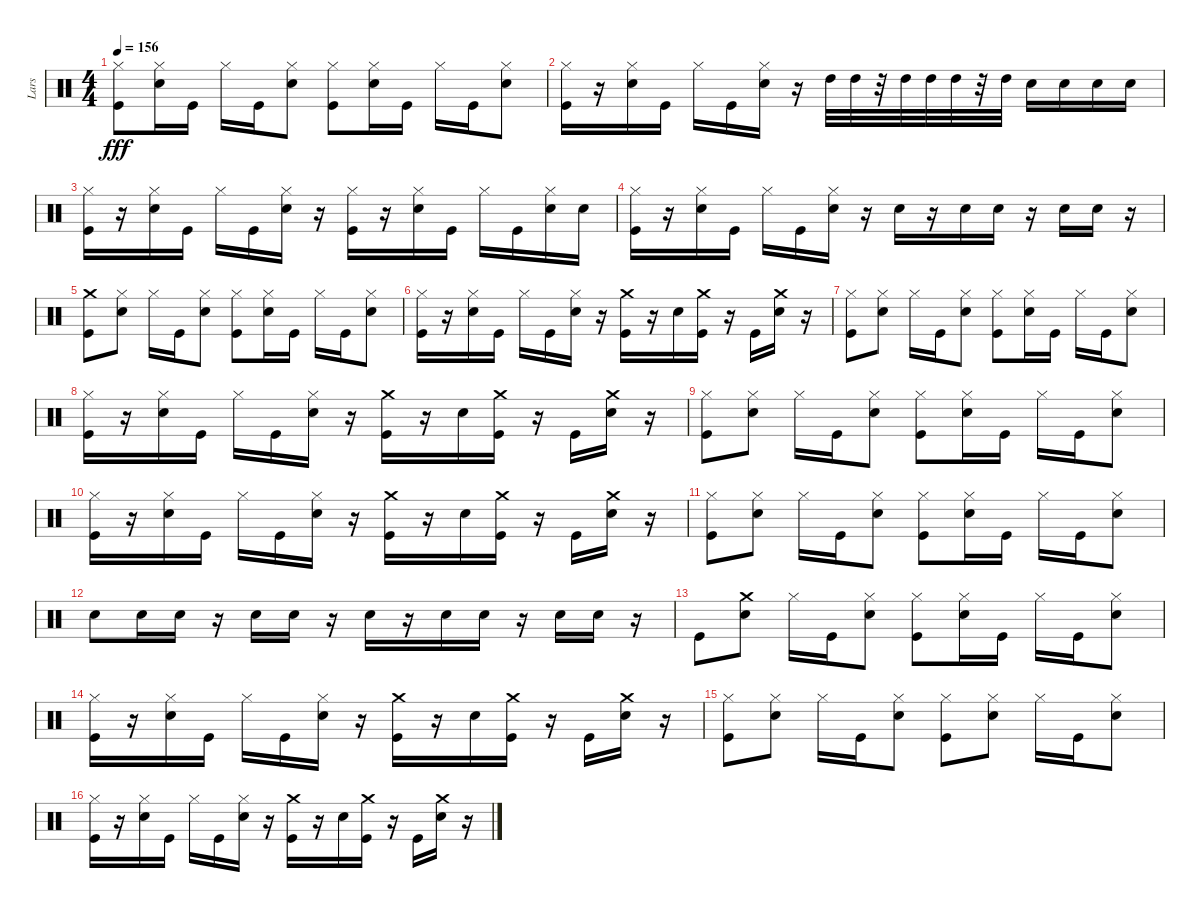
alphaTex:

\track ("Lars" "Lars") {instrument percussion bank 102}
\staff {score}
\articulation defaults
\ts (4 4)
\tempo 156
\clef neutral
\ks c
("Hi-Hat (closed)" "Kick (hit)").8{dy fff} ("Snare (hit) 2" "Hi-Hat (closed)").16 "Kick (hit)".16 "Hi-Hat (closed)".16 "Kick (hit)".16 ("Snare (hit) 2" "Hi-Hat (closed)").8 ("Kick (hit)" "Hi-Hat (closed)").8 ("Snare (hit) 2" "Hi-Hat (closed)").16 "Kick (hit)".16 "Hi-Hat (closed)".16 "Kick (hit)".16 ("Snare (hit) 2" "Hi-Hat (closed)").8 |
("Hi-Hat (closed)" "Kick (hit)").16 r.16 ("Hi-Hat (closed)" "Snare (hit) 2").16 "Kick (hit)".16 "Hi-Hat (closed)".16 "Kick (hit)".16 ("Hi-Hat (closed)" "Snare (hit) 2").16 r.16 "High Tom (hit)".32 "High Tom (hit)".32 r.32 "High Tom (hit)".32 "High Tom (hit)".32 "High Tom (hit)".32 r.32 "High Tom (hit)".32 "Snare (hit) 2".16 "Snare (hit) 2".16 "Snare (hit) 2".16 "Snare (hit) 2".16 |
("Hi-Hat (closed)" "Kick (hit)").16 r.16 ("Hi-Hat (closed)" "Snare (hit) 2").16 "Kick (hit)".16 "Hi-Hat (closed)".16 "Kick (hit)".16 ("Hi-Hat (closed)" "Snare (hit) 2").16 r.16 ("Hi-Hat (closed)" "Kick (hit)").16 r.16 ("Hi-Hat (closed)" "Snare (hit) 2").16 "Kick (hit)".16 "Hi-Hat (closed)".16 "Kick (hit)".16 ("Hi-Hat (closed)" "Snare (hit) 2").16 "Snare (hit) 2".16 |
("Hi-Hat (closed)" "Kick (hit)").16 r.16 ("Hi-Hat (closed)" "Snare (hit) 2").16 "Kick (hit)".16 "Hi-Hat (closed)".16 "Kick (hit)".16 ("Hi-Hat (closed)" "Snare (hit) 2").16 r.16 "Snare (hit) 2".16 r.16 "Snare (hit) 2".16 "Snare (hit) 2".16 r.16 "Snare (hit) 2".16 "Snare (hit) 2".16 r.16 |
("Crash medium (hit)" "Kick (hit)").8 ("Snare (hit) 2" "Hi-Hat (closed)").8 "Hi-Hat (closed)".16 "Kick (hit)".16 ("Snare (hit) 2" "Hi-Hat (closed)").8 ("Kick (hit)" "Hi-Hat (closed)").8 ("Snare (hit) 2" "Hi-Hat (closed)").16 "Kick (hit)".16 "Hi-Hat (closed)".16 "Kick (hit)".16 ("Snare (hit) 2" "Hi-Hat (closed)").8 |
("Hi-Hat (closed)" "Kick (hit)").16 r.16 ("Hi-Hat (closed)" "Snare (hit) 2").16 "Kick (hit)".16 "Hi-Hat (closed)".16 "Kick (hit)".16 ("Hi-Hat (closed)" "Snare (hit) 2").16 r.16 ("Crash medium (hit)" "Kick (hit)").16 r.16 "Snare (hit) 2".16 ("Crash medium (hit)" "Kick (hit)").16 r.16 "Kick (hit)".16 ("Crash medium (hit)" "Snare (hit) 2").16 r.16 |
("Hi-Hat (closed)" "Kick (hit)").8 ("Snare (hit) 2" "Hi-Hat (closed)").8 "Hi-Hat (closed)".16 "Kick (hit)".16 ("Snare (hit) 2" "Hi-Hat (closed)").8 ("Kick (hit)" "Hi-Hat (closed)").8 ("Snare (hit) 2" "Hi-Hat (closed)").16 "Kick (hit)".16 "Hi-Hat (closed)".16 "Kick (hit)".16 ("Snare (hit) 2" "Hi-Hat (closed)").8 |
("Hi-Hat (closed)" "Kick (hit)").16 r.16 ("Hi-Hat (closed)" "Snare (hit) 2").16 "Kick (hit)".16 "Hi-Hat (closed)".16 "Kick (hit)".16 ("Hi-Hat (closed)" "Snare (hit) 2").16 r.16 ("Crash medium (hit)" "Kick (hit)").16 r.16 "Snare (hit) 2".16 ("Crash medium (hit)" "Kick (hit)").16 r.16 "Kick (hit)".16 ("Crash medium (hit)" "Snare (hit) 2").16 r.16 |
("Hi-Hat (closed)" "Kick (hit)").8 ("Snare (hit) 2" "Hi-Hat (closed)").8 "Hi-Hat (closed)".16 "Kick (hit)".16 ("Snare (hit) 2" "Hi-Hat (closed)").8 ("Kick (hit)" "Hi-Hat (closed)").8 ("Snare (hit) 2" "Hi-Hat (closed)").16 "Kick (hit)".16 "Hi-Hat (closed)".16 "Kick (hit)".16 ("Snare (hit) 2" "Hi-Hat (closed)").8 |
("Hi-Hat (closed)" "Kick (hit)").16 r.16 ("Hi-Hat (closed)" "Snare (hit) 2").16 "Kick (hit)".16 "Hi-Hat (closed)".16 "Kick (hit)".16 ("Hi-Hat (closed)" "Snare (hit) 2").16 r.16 ("Crash medium (hit)" "Kick (hit)").16 r.16 "Snare (hit) 2".16 ("Crash medium (hit)" "Kick (hit)").16 r.16 "Kick (hit)".16 ("Crash medium (hit)" "Snare (hit) 2").16 r.16 |
("Hi-Hat (closed)" "Kick (hit)").8 ("Snare (hit) 2" "Hi-Hat (closed)").8 "Hi-Hat (closed)".16 "Kick (hit)".16 ("Snare (hit) 2" "Hi-Hat (closed)").8 ("Kick (hit)" "Hi-Hat (closed)").8 ("Snare (hit) 2" "Hi-Hat (closed)").16 "Kick (hit)".16 "Hi-Hat (closed)".16 "Kick (hit)".16 ("Snare (hit) 2" "Hi-Hat (closed)").8 |
"Snare (hit) 2".8 "Snare (hit) 2".16 "Snare (hit) 2".16 r.16 "Snare (hit) 2".16 "Snare (hit) 2".16 r.16 "Snare (hit) 2".16 r.16 "Snare (hit) 2".16 "Snare (hit) 2".16 r.16 "Snare (hit) 2".16 "Snare (hit) 2".16 r.16 |
"Kick (hit)".8 ("Crash medium (hit)" "Snare (hit) 2").8 "Hi-Hat (closed)".16 "Kick (hit)".16 ("Snare (hit) 2" "Hi-Hat (closed)").8 ("Kick (hit)" "Hi-Hat (closed)").8 ("Snare (hit) 2" "Hi-Hat (closed)").16 "Kick (hit)".16 "Hi-Hat (closed)".16 "Kick (hit)".16 ("Snare (hit) 2" "Hi-Hat (closed)").8 |
("Hi-Hat (closed)" "Kick (hit)").16 r.16 ("Hi-Hat (closed)" "Snare (hit) 2").16 "Kick (hit)".16 "Hi-Hat (closed)".16 "Kick (hit)".16 ("Hi-Hat (closed)" "Snare (hit) 2").16 r.16 ("Crash medium (hit)" "Kick (hit)").16 r.16 "Snare (hit) 2".16 ("Crash medium (hit)" "Kick (hit)").16 r.16 "Kick (hit)".16 ("Crash medium (hit)" "Snare (hit) 2").16 r.16 |
("Hi-Hat (closed)" "Kick (hit)").8 ("Snare (hit) 2" "Hi-Hat (closed)").8 "Hi-Hat (closed)".16 "Kick (hit)".16 ("Snare (hit) 2" "Hi-Hat (closed)").8 ("Kick (hit)" "Hi-Hat (closed)").8 ("Snare (hit) 2" "Hi-Hat (closed)").8 "Hi-Hat (closed)".16 "Kick (hit)".16 ("Snare (hit) 2" "Hi-Hat (closed)").8 |
("Hi-Hat (closed)" "Kick (hit)").16 r.16 ("Hi-Hat (closed)" "Snare (hit) 2").16 "Kick (hit)".16 "Hi-Hat (closed)".16 "Kick (hit)".16 ("Hi-Hat (closed)" "Snare (hit) 2").16 r.16 ("Crash medium (hit)" "Kick (hit)").16 r.16 "Snare (hit) 2".16 ("Crash medium (hit)" "Kick (hit)").16 r.16 "Kick (hit)".16 ("Crash medium (hit)" "Snare (hit) 2").16 r.16
